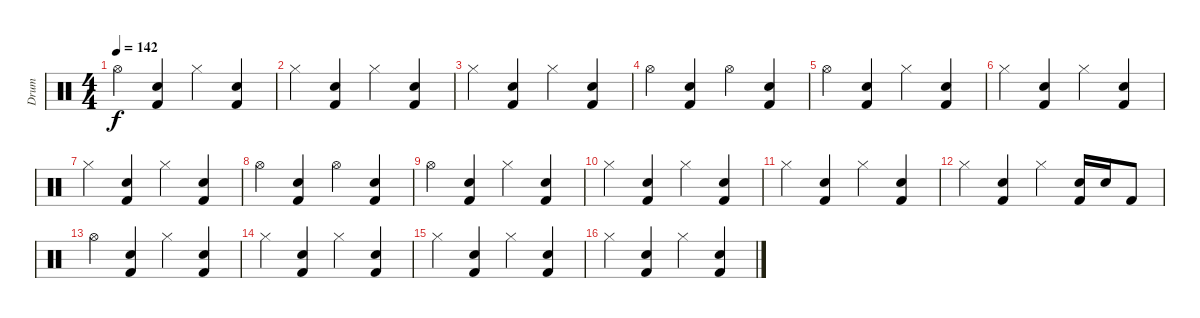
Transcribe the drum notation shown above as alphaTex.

\track ("Drum" "Drum") {instrument percussion}
\staff {score}
\articulation defaults
\ts (4 4)
\tempo 142
\clef neutral
\ks c "Hi-Hat (open)".4{dy f}
("Electric Snare (hit)" "Kick (hit) 2").4 "Hi-Hat (closed)".4 ("Electric Snare (hit)" "Kick (hit) 2").4 |
"Hi-Hat (closed)".4 ("Electric Snare (hit)" "Kick (hit) 2").4 "Hi-Hat (closed)".4 ("Electric Snare (hit)" "Kick (hit) 2").4 |
"Hi-Hat (closed)".4 ("Electric Snare (hit)" "Kick (hit) 2").4 "Hi-Hat (closed)".4 ("Electric Snare (hit)" "Kick (hit) 2").4 |
"Hi-Hat (open)".4 ("Electric Snare (hit)" "Kick (hit) 2").4 "Hi-Hat (open)".4 ("Electric Snare (hit)" "Kick (hit) 2").4 |
"Hi-Hat (open)".4 ("Electric Snare (hit)" "Kick (hit) 2").4 "Hi-Hat (closed)".4 ("Electric Snare (hit)" "Kick (hit) 2").4 |
"Hi-Hat (closed)".4 ("Electric Snare (hit)" "Kick (hit) 2").4 "Hi-Hat (closed)".4 ("Electric Snare (hit)" "Kick (hit) 2").4 |
"Hi-Hat (closed)".4 ("Electric Snare (hit)" "Kick (hit) 2").4 "Hi-Hat (closed)".4 ("Electric Snare (hit)" "Kick (hit) 2").4 |
"Hi-Hat (open)".4 ("Electric Snare (hit)" "Kick (hit) 2").4 "Hi-Hat (open)".4 ("Electric Snare (hit)" "Kick (hit) 2").4 |
"Hi-Hat (open)".4 ("Electric Snare (hit)" "Kick (hit) 2").4 "Hi-Hat (closed)".4 ("Electric Snare (hit)" "Kick (hit) 2").4 |
"Hi-Hat (closed)".4 ("Electric Snare (hit)" "Kick (hit) 2").4 "Hi-Hat (closed)".4 ("Electric Snare (hit)" "Kick (hit) 2").4 |
"Hi-Hat (closed)".4 ("Electric Snare (hit)" "Kick (hit) 2").4 "Hi-Hat (closed)".4 ("Electric Snare (hit)" "Kick (hit) 2").4 |
"Hi-Hat (closed)".4 ("Electric Snare (hit)" "Kick (hit) 2").4 "Hi-Hat (closed)".4 ("Electric Snare (hit)" "Kick (hit) 2").16 "Electric Snare (hit)".16 "Kick (hit) 2".8 |
"Hi-Hat (open)".4 ("Electric Snare (hit)" "Kick (hit) 2").4 "Hi-Hat (closed)".4 ("Electric Snare (hit)" "Kick (hit) 2").4 |
"Hi-Hat (closed)".4 ("Electric Snare (hit)" "Kick (hit) 2").4 "Hi-Hat (closed)".4 ("Electric Snare (hit)" "Kick (hit) 2").4 |
"Hi-Hat (closed)".4 ("Electric Snare (hit)" "Kick (hit) 2").4 "Hi-Hat (closed)".4 ("Electric Snare (hit)" "Kick (hit) 2").4 |
"Hi-Hat (closed)".4 ("Electric Snare (hit)" "Kick (hit) 2").4 "Hi-Hat (closed)".4 ("Electric Snare (hit)" "Kick (hit) 2").4
